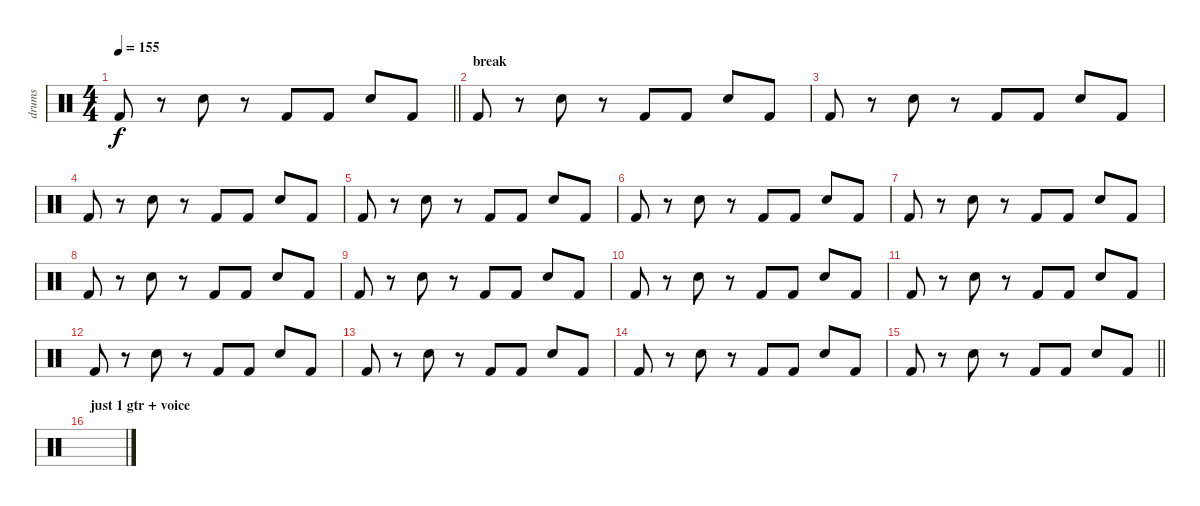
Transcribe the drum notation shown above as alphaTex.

\track ("drums" "drums") {instrument percussion}
\staff {score}
\articulation defaults
\ts (4 4)
\tempo 155
\clef neutral
\barLineRight lightlight
\ks c "Kick (hit) 2".8{dy f}
r.8 "Snare (hit) 2".8 r.8 "Kick (hit) 2".8 "Kick (hit) 2".8 "Snare (hit) 2".8 "Kick (hit) 2".8 |
\section ("" "break")
"Kick (hit) 2".8 r.8 "Snare (hit) 2".8 r.8 "Kick (hit) 2".8 "Kick (hit) 2".8 "Snare (hit) 2".8 "Kick (hit) 2".8 |
"Kick (hit) 2".8 r.8 "Snare (hit) 2".8 r.8 "Kick (hit) 2".8 "Kick (hit) 2".8 "Snare (hit) 2".8 "Kick (hit) 2".8 |
"Kick (hit) 2".8 r.8 "Snare (hit) 2".8 r.8 "Kick (hit) 2".8 "Kick (hit) 2".8 "Snare (hit) 2".8 "Kick (hit) 2".8 |
"Kick (hit) 2".8 r.8 "Snare (hit) 2".8 r.8 "Kick (hit) 2".8 "Kick (hit) 2".8 "Snare (hit) 2".8 "Kick (hit) 2".8 |
"Kick (hit) 2".8 r.8 "Snare (hit) 2".8 r.8 "Kick (hit) 2".8 "Kick (hit) 2".8 "Snare (hit) 2".8 "Kick (hit) 2".8 |
"Kick (hit) 2".8 r.8 "Snare (hit) 2".8 r.8 "Kick (hit) 2".8 "Kick (hit) 2".8 "Snare (hit) 2".8 "Kick (hit) 2".8 |
"Kick (hit) 2".8 r.8 "Snare (hit) 2".8 r.8 "Kick (hit) 2".8 "Kick (hit) 2".8 "Snare (hit) 2".8 "Kick (hit) 2".8 |
"Kick (hit) 2".8 r.8 "Snare (hit) 2".8 r.8 "Kick (hit) 2".8 "Kick (hit) 2".8 "Snare (hit) 2".8 "Kick (hit) 2".8 |
"Kick (hit) 2".8 r.8 "Snare (hit) 2".8 r.8 "Kick (hit) 2".8 "Kick (hit) 2".8 "Snare (hit) 2".8 "Kick (hit) 2".8 |
"Kick (hit) 2".8 r.8 "Snare (hit) 2".8 r.8 "Kick (hit) 2".8 "Kick (hit) 2".8 "Snare (hit) 2".8 "Kick (hit) 2".8 |
"Kick (hit) 2".8 r.8 "Snare (hit) 2".8 r.8 "Kick (hit) 2".8 "Kick (hit) 2".8 "Snare (hit) 2".8 "Kick (hit) 2".8 |
"Kick (hit) 2".8 r.8 "Snare (hit) 2".8 r.8 "Kick (hit) 2".8 "Kick (hit) 2".8 "Snare (hit) 2".8 "Kick (hit) 2".8 |
"Kick (hit) 2".8 r.8 "Snare (hit) 2".8 r.8 "Kick (hit) 2".8 "Kick (hit) 2".8 "Snare (hit) 2".8 "Kick (hit) 2".8 |
\barLineRight lightlight "Kick (hit) 2".8
r.8 "Snare (hit) 2".8 r.8 "Kick (hit) 2".8 "Kick (hit) 2".8 "Snare (hit) 2".8 "Kick (hit) 2".8 |
\section ("" "just 1 gtr + voice")
